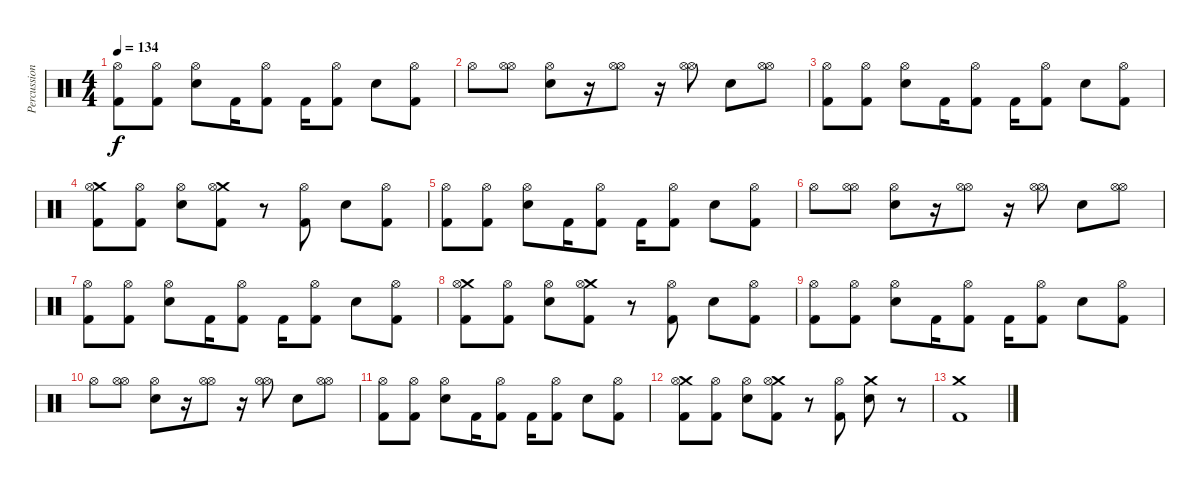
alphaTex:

\track ("Percussion" "Percussion") {instrument percussion}
\staff {score}
\articulation defaults
\ts (4 4)
\tempo 134
\clef neutral
\ks c
("Kick (hit) 2" "Hi-Hat (open)").8{dy f} ("Kick (hit) 2" "Hi-Hat (open)").8 ("Electric Snare (hit)" "Hi-Hat (open)").8 "Kick (hit) 2".16 ("Kick (hit) 2" "Hi-Hat (open)").8 "Kick (hit) 2".16 ("Kick (hit) 2" "Hi-Hat (open)").8 "Electric Snare (hit)".8 ("Kick (hit) 2" "Hi-Hat (open)").8 |
"Hi-Hat (open)".8 ("Hi-Hat (open)" "Hi-Hat (open)").8 ("Electric Snare (hit)" "Hi-Hat (open)").8 r.16 ("Hi-Hat (open)" "Hi-Hat (open)").8 r.16 ("Hi-Hat (open)" "Hi-Hat (open)").8 "Electric Snare (hit)".8 ("Hi-Hat (open)" "Hi-Hat (open)").8 |
("Kick (hit) 2" "Hi-Hat (open)").8 ("Kick (hit) 2" "Hi-Hat (open)").8 ("Electric Snare (hit)" "Hi-Hat (open)").8 "Kick (hit) 2".16 ("Kick (hit) 2" "Hi-Hat (open)").8 "Kick (hit) 2".16 ("Kick (hit) 2" "Hi-Hat (open)").8 "Electric Snare (hit)".8 ("Kick (hit) 2" "Hi-Hat (open)").8 |
("Kick (hit) 2" "Crash medium (hit)" "Hi-Hat (open)").8 ("Kick (hit) 2" "Hi-Hat (open)").8 ("Electric Snare (hit)" "Hi-Hat (open)").8 ("Kick (hit) 2" "Crash medium (hit)" "Hi-Hat (open)").8 r.8 ("Kick (hit) 2" "Hi-Hat (open)").8 "Electric Snare (hit)".8 ("Kick (hit) 2" "Hi-Hat (open)").8 |
("Kick (hit) 2" "Hi-Hat (open)").8 ("Kick (hit) 2" "Hi-Hat (open)").8 ("Electric Snare (hit)" "Hi-Hat (open)").8 "Kick (hit) 2".16 ("Kick (hit) 2" "Hi-Hat (open)").8 "Kick (hit) 2".16 ("Kick (hit) 2" "Hi-Hat (open)").8 "Electric Snare (hit)".8 ("Kick (hit) 2" "Hi-Hat (open)").8 |
"Hi-Hat (open)".8 ("Hi-Hat (open)" "Hi-Hat (open)").8 ("Electric Snare (hit)" "Hi-Hat (open)").8 r.16 ("Hi-Hat (open)" "Hi-Hat (open)").8 r.16 ("Hi-Hat (open)" "Hi-Hat (open)").8 "Electric Snare (hit)".8 ("Hi-Hat (open)" "Hi-Hat (open)").8 |
("Kick (hit) 2" "Hi-Hat (open)").8 ("Kick (hit) 2" "Hi-Hat (open)").8 ("Electric Snare (hit)" "Hi-Hat (open)").8 "Kick (hit) 2".16 ("Kick (hit) 2" "Hi-Hat (open)").8 "Kick (hit) 2".16 ("Kick (hit) 2" "Hi-Hat (open)").8 "Electric Snare (hit)".8 ("Kick (hit) 2" "Hi-Hat (open)").8 |
("Kick (hit) 2" "Crash medium (hit)" "Hi-Hat (open)").8 ("Kick (hit) 2" "Hi-Hat (open)").8 ("Electric Snare (hit)" "Hi-Hat (open)").8 ("Kick (hit) 2" "Crash medium (hit)" "Hi-Hat (open)").8 r.8 ("Kick (hit) 2" "Hi-Hat (open)").8 "Electric Snare (hit)".8 ("Kick (hit) 2" "Hi-Hat (open)").8 |
("Kick (hit) 2" "Hi-Hat (open)").8 ("Kick (hit) 2" "Hi-Hat (open)").8 ("Electric Snare (hit)" "Hi-Hat (open)").8 "Kick (hit) 2".16 ("Kick (hit) 2" "Hi-Hat (open)").8 "Kick (hit) 2".16 ("Kick (hit) 2" "Hi-Hat (open)").8 "Electric Snare (hit)".8 ("Kick (hit) 2" "Hi-Hat (open)").8 |
"Hi-Hat (open)".8 ("Hi-Hat (open)" "Hi-Hat (open)").8 ("Electric Snare (hit)" "Hi-Hat (open)").8 r.16 ("Hi-Hat (open)" "Hi-Hat (open)").8 r.16 ("Hi-Hat (open)" "Hi-Hat (open)").8 "Electric Snare (hit)".8 ("Hi-Hat (open)" "Hi-Hat (open)").8 |
("Kick (hit) 2" "Hi-Hat (open)").8 ("Kick (hit) 2" "Hi-Hat (open)").8 ("Electric Snare (hit)" "Hi-Hat (open)").8 "Kick (hit) 2".16 ("Kick (hit) 2" "Hi-Hat (open)").8 "Kick (hit) 2".16 ("Kick (hit) 2" "Hi-Hat (open)").8 "Electric Snare (hit)".8 ("Kick (hit) 2" "Hi-Hat (open)").8 |
("Kick (hit) 2" "Crash medium (hit)" "Hi-Hat (open)").8 ("Kick (hit) 2" "Hi-Hat (open)").8 ("Electric Snare (hit)" "Hi-Hat (open)").8 ("Kick (hit) 2" "Crash medium (hit)" "Hi-Hat (open)").8 r.8 ("Kick (hit) 2" "Hi-Hat (open)").8 ("Electric Snare (hit)" "Crash medium (hit)").8 r.8 |
("Kick (hit) 2" "Crash medium (hit)").1
